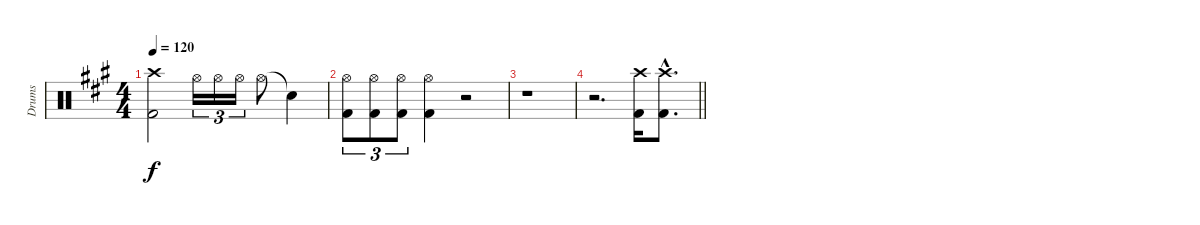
\track ("Drums" "Drums") {instrument percussion}
\staff {score}
\articulation defaults
\ts (4 4)
\tempo 120
\clef neutral
\ks a
("Crash high (hit)" "Kick (hit) 2").2{dy f} "Hi-Hat (open)".16{tu (3 2)} "Hi-Hat (open)".16{tu (3 2)} "Hi-Hat (open)".16{tu (3 2)} "Hi-Hat (open)".8 "Snare (hit)"{t}.4 |
("Hi-Hat (open)" "Kick (hit) 2").8{tu (3 2)} ("Hi-Hat (open)" "Kick (hit) 2").8{tu (3 2)} ("Hi-Hat (open)" "Kick (hit) 2").8{tu (3 2)} ("Hi-Hat (open)" "Kick (hit) 2").4 r.2 |
r.1 |
\barLineRight lightlight
r.2{d} ("Crash high (hit)" "Kick (hit) 2").16 ("Crash high (hit)"{hac} "Kick (hit) 2"{hac}).8{d}
